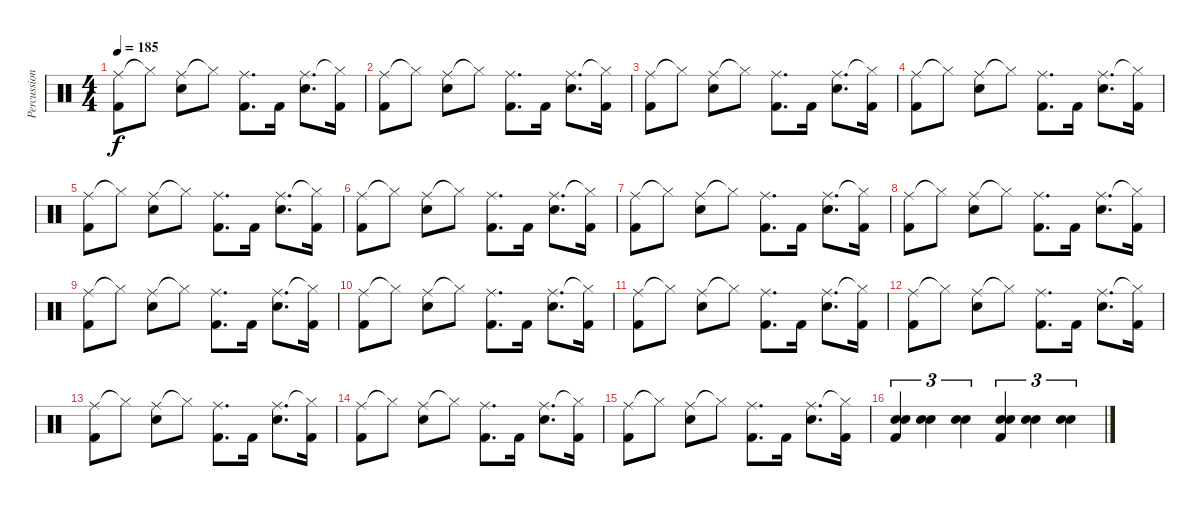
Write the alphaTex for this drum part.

\track ("Percussion" "Percussion") {instrument percussion}
\staff {score}
\articulation defaults
\ts (4 4)
\tempo 185
\clef neutral
\ks c
("Ride (middle)" "Kick (hit) 2").8{dy f} "Hi-Hat (closed)"{t}.8 ("Ride (middle)" "Snare (hit) 2").8 "Hi-Hat (closed)"{t}.8 ("Ride (middle)" "Kick (hit) 2").8{d} "Kick (hit) 2".16 ("Ride (middle)" "Snare (hit) 2").8{d} ("Hi-Hat (closed)"{t} "Kick (hit) 2").16 |
("Ride (middle)" "Kick (hit) 2").8 "Hi-Hat (closed)"{t}.8 ("Ride (middle)" "Snare (hit) 2").8 "Hi-Hat (closed)"{t}.8 ("Ride (middle)" "Kick (hit) 2").8{d} "Kick (hit) 2".16 ("Ride (middle)" "Snare (hit) 2").8{d} ("Hi-Hat (closed)"{t} "Kick (hit) 2").16 |
("Ride (middle)" "Kick (hit) 2").8 "Hi-Hat (closed)"{t}.8 ("Ride (middle)" "Snare (hit) 2").8 "Hi-Hat (closed)"{t}.8 ("Ride (middle)" "Kick (hit) 2").8{d} "Kick (hit) 2".16 ("Ride (middle)" "Snare (hit) 2").8{d} ("Hi-Hat (closed)"{t} "Kick (hit) 2").16 |
("Ride (middle)" "Kick (hit) 2").8 "Hi-Hat (closed)"{t}.8 ("Ride (middle)" "Snare (hit) 2").8 "Hi-Hat (closed)"{t}.8 ("Ride (middle)" "Kick (hit) 2").8{d} "Kick (hit) 2".16 ("Ride (middle)" "Snare (hit) 2").8{d} ("Hi-Hat (closed)"{t} "Kick (hit) 2").16 |
("Ride (middle)" "Kick (hit) 2").8 "Hi-Hat (closed)"{t}.8 ("Ride (middle)" "Snare (hit) 2").8 "Hi-Hat (closed)"{t}.8 ("Ride (middle)" "Kick (hit) 2").8{d} "Kick (hit) 2".16 ("Ride (middle)" "Snare (hit) 2").8{d} ("Hi-Hat (closed)"{t} "Kick (hit) 2").16 |
("Ride (middle)" "Kick (hit) 2").8 "Hi-Hat (closed)"{t}.8 ("Ride (middle)" "Snare (hit) 2").8 "Hi-Hat (closed)"{t}.8 ("Ride (middle)" "Kick (hit) 2").8{d} "Kick (hit) 2".16 ("Ride (middle)" "Snare (hit) 2").8{d} ("Hi-Hat (closed)"{t} "Kick (hit) 2").16 |
("Ride (middle)" "Kick (hit) 2").8 "Hi-Hat (closed)"{t}.8 ("Ride (middle)" "Snare (hit) 2").8 "Hi-Hat (closed)"{t}.8 ("Ride (middle)" "Kick (hit) 2").8{d} "Kick (hit) 2".16 ("Ride (middle)" "Snare (hit) 2").8{d} ("Hi-Hat (closed)"{t} "Kick (hit) 2").16 |
("Ride (middle)" "Kick (hit) 2").8 "Hi-Hat (closed)"{t}.8 ("Ride (middle)" "Snare (hit) 2").8 "Hi-Hat (closed)"{t}.8 ("Ride (middle)" "Kick (hit) 2").8{d} "Kick (hit) 2".16 ("Ride (middle)" "Snare (hit) 2").8{d} ("Hi-Hat (closed)"{t} "Kick (hit) 2").16 |
("Ride (middle)" "Kick (hit) 2").8 "Hi-Hat (closed)"{t}.8 ("Ride (middle)" "Snare (hit) 2").8 "Hi-Hat (closed)"{t}.8 ("Ride (middle)" "Kick (hit) 2").8{d} "Kick (hit) 2".16 ("Ride (middle)" "Snare (hit) 2").8{d} ("Hi-Hat (closed)"{t} "Kick (hit) 2").16 |
("Ride (middle)" "Kick (hit) 2").8 "Hi-Hat (closed)"{t}.8 ("Ride (middle)" "Snare (hit) 2").8 "Hi-Hat (closed)"{t}.8 ("Ride (middle)" "Kick (hit) 2").8{d} "Kick (hit) 2".16 ("Ride (middle)" "Snare (hit) 2").8{d} ("Hi-Hat (closed)"{t} "Kick (hit) 2").16 |
("Ride (middle)" "Kick (hit) 2").8 "Hi-Hat (closed)"{t}.8 ("Ride (middle)" "Snare (hit) 2").8 "Hi-Hat (closed)"{t}.8 ("Ride (middle)" "Kick (hit) 2").8{d} "Kick (hit) 2".16 ("Ride (middle)" "Snare (hit) 2").8{d} ("Hi-Hat (closed)"{t} "Kick (hit) 2").16 |
("Ride (middle)" "Kick (hit) 2").8 "Hi-Hat (closed)"{t}.8 ("Ride (middle)" "Snare (hit) 2").8 "Hi-Hat (closed)"{t}.8 ("Ride (middle)" "Kick (hit) 2").8{d} "Kick (hit) 2".16 ("Ride (middle)" "Snare (hit) 2").8{d} ("Hi-Hat (closed)"{t} "Kick (hit) 2").16 |
("Ride (middle)" "Kick (hit) 2").8 "Hi-Hat (closed)"{t}.8 ("Ride (middle)" "Snare (hit) 2").8 "Hi-Hat (closed)"{t}.8 ("Ride (middle)" "Kick (hit) 2").8{d} "Kick (hit) 2".16 ("Ride (middle)" "Snare (hit) 2").8{d} ("Hi-Hat (closed)"{t} "Kick (hit) 2").16 |
("Ride (middle)" "Kick (hit) 2").8 "Hi-Hat (closed)"{t}.8 ("Ride (middle)" "Snare (hit) 2").8 "Hi-Hat (closed)"{t}.8 ("Ride (middle)" "Kick (hit) 2").8{d} "Kick (hit) 2".16 ("Ride (middle)" "Snare (hit) 2").8{d} ("Hi-Hat (closed)"{t} "Kick (hit) 2").16 |
("Ride (middle)" "Kick (hit) 2").8 "Hi-Hat (closed)"{t}.8 ("Ride (middle)" "Snare (hit) 2").8 "Hi-Hat (closed)"{t}.8 ("Ride (middle)" "Kick (hit) 2").8{d} "Kick (hit) 2".16 ("Ride (middle)" "Snare (hit) 2").8{d} ("Hi-Hat (closed)"{t} "Kick (hit) 2").16 |
("Snare (hit) 2" "Snare (hit) 2" "Kick (hit) 2").4{tu (3 2)} ("Snare (hit) 2" "Snare (hit) 2").4{tu (3 2)} ("Snare (hit) 2" "Snare (hit) 2").4{tu (3 2)} ("Snare (hit) 2" "Snare (hit) 2" "Kick (hit) 2").4{tu (3 2)} ("Snare (hit) 2" "Snare (hit) 2").4{tu (3 2)} ("Snare (hit) 2" "Snare (hit) 2").4{tu (3 2)}
